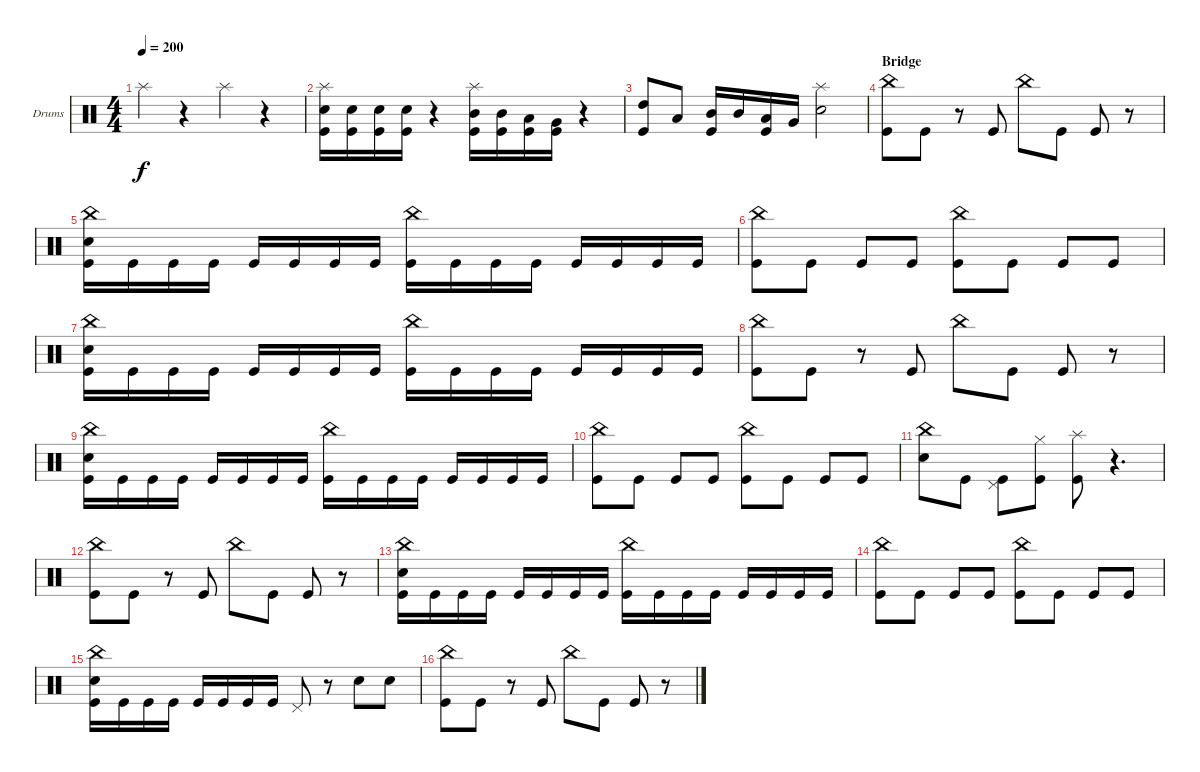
\defaultSystemsLayout 4
\bracketExtendMode groupsimilarinstruments
\firstSystemTrackNameOrientation horizontal
\otherSystemsTrackNameOrientation horizontal
\track ("Drumkit" "Drums") {instrument percussion}
\staff {score}
\articulation defaults
\ts (4 4)
\tempo 200
\clef neutral
\ks c "Splash (hit)".4{dy f}
r.4 "Splash (hit)".4 r.4 |
("Kick (hit)" "Splash (hit)" "Snare (hit) 2").16 ("Kick (hit)" "Snare (hit) 2").16 ("Kick (hit)" "Snare (hit) 2").16 ("Kick (hit)" "Snare (hit) 2").16 r.4 ("Kick (hit)" "Splash (hit)" "Mid Tom (hit)").16 ("Kick (hit)" "Mid Tom (hit)").16 ("Kick (hit)" "Low Tom (hit)").16 ("Kick (hit)" "Very Low Tom (hit)").16 r.4 |
("High Tom (hit)" "Kick (hit)").8 "Low Tom (hit)".8 ("Mid Tom (hit)" "Kick (hit)").16 "Mid Tom (hit)".16 ("Low Tom (hit)" "Kick (hit)").16 "Very Low Tom (hit)".16 ("Snare (hit) 2" "Splash (hit)").2 |
\section ("" "Bridge")
("Kick (hit)" "China (hit)").8 "Kick (hit)".8 r.8 "Kick (hit)".8 "China (hit)".8 "Kick (hit)".8 "Kick (hit)".8 r.8 |
("Kick (hit)" "Snare (hit) 2" "China (hit)").16 "Kick (hit)".16 "Kick (hit)".16 "Kick (hit)".16 "Kick (hit)".16 "Kick (hit)".16 "Kick (hit)".16 "Kick (hit)".16 ("Kick (hit)" "China (hit)").16 "Kick (hit)".16 "Kick (hit)".16 "Kick (hit)".16 "Kick (hit)".16 "Kick (hit)".16 "Kick (hit)".16 "Kick (hit)".16 |
("Kick (hit)" "China (hit)").8 "Kick (hit)".8 "Kick (hit)".8 "Kick (hit)".8 ("Kick (hit)" "China (hit)").8 "Kick (hit)".8 "Kick (hit)".8 "Kick (hit)".8 |
("Kick (hit)" "Snare (hit) 2" "China (hit)").16 "Kick (hit)".16 "Kick (hit)".16 "Kick (hit)".16 "Kick (hit)".16 "Kick (hit)".16 "Kick (hit)".16 "Kick (hit)".16 ("Kick (hit)" "China (hit)").16 "Kick (hit)".16 "Kick (hit)".16 "Kick (hit)".16 "Kick (hit)".16 "Kick (hit)".16 "Kick (hit)".16 "Kick (hit)".16 |
("Kick (hit)" "China (hit)").8 "Kick (hit)".8 r.8 "Kick (hit)".8 "China (hit)".8 "Kick (hit)".8 "Kick (hit)".8 r.8 |
("Kick (hit)" "Snare (hit) 2" "China (hit)").16 "Kick (hit)".16 "Kick (hit)".16 "Kick (hit)".16 "Kick (hit)".16 "Kick (hit)".16 "Kick (hit)".16 "Kick (hit)".16 ("Kick (hit)" "China (hit)").16 "Kick (hit)".16 "Kick (hit)".16 "Kick (hit)".16 "Kick (hit)".16 "Kick (hit)".16 "Kick (hit)".16 "Kick (hit)".16 |
("Kick (hit)" "China (hit)").8 "Kick (hit)".8 "Kick (hit)".8 "Kick (hit)".8 ("Kick (hit)" "China (hit)").8 "Kick (hit)".8 "Kick (hit)".8 "Kick (hit)".8 |
("China (hit)" "Snare (hit) 2").8 "Kick (hit)".8 ("Kick (hit)" "Pedal Hi-Hat (hit)").8 ("Kick (hit)" "Hi-Hat (closed)").8 ("Splash (hit)" "Kick (hit)").8 r.4{d} |
("Kick (hit)" "China (hit)").8 "Kick (hit)".8 r.8 "Kick (hit)".8 "China (hit)".8 "Kick (hit)".8 "Kick (hit)".8 r.8 |
("Kick (hit)" "Snare (hit) 2" "China (hit)").16 "Kick (hit)".16 "Kick (hit)".16 "Kick (hit)".16 "Kick (hit)".16 "Kick (hit)".16 "Kick (hit)".16 "Kick (hit)".16 ("Kick (hit)" "China (hit)").16 "Kick (hit)".16 "Kick (hit)".16 "Kick (hit)".16 "Kick (hit)".16 "Kick (hit)".16 "Kick (hit)".16 "Kick (hit)".16 |
("Kick (hit)" "China (hit)").8 "Kick (hit)".8 "Kick (hit)".8 "Kick (hit)".8 ("Kick (hit)" "China (hit)").8 "Kick (hit)".8 "Kick (hit)".8 "Kick (hit)".8 |
("Kick (hit)" "Snare (hit) 2" "China (hit)").16 "Kick (hit)".16 "Kick (hit)".16 "Kick (hit)".16 "Kick (hit)".16 "Kick (hit)".16 "Kick (hit)".16 "Kick (hit)".16 "Pedal Hi-Hat (hit)".8 r.8 "Snare (hit) 2".8 "Snare (hit) 2".8 |
("Kick (hit)" "China (hit)").8 "Kick (hit)".8 r.8 "Kick (hit)".8 "China (hit)".8 "Kick (hit)".8 "Kick (hit)".8 r.8
